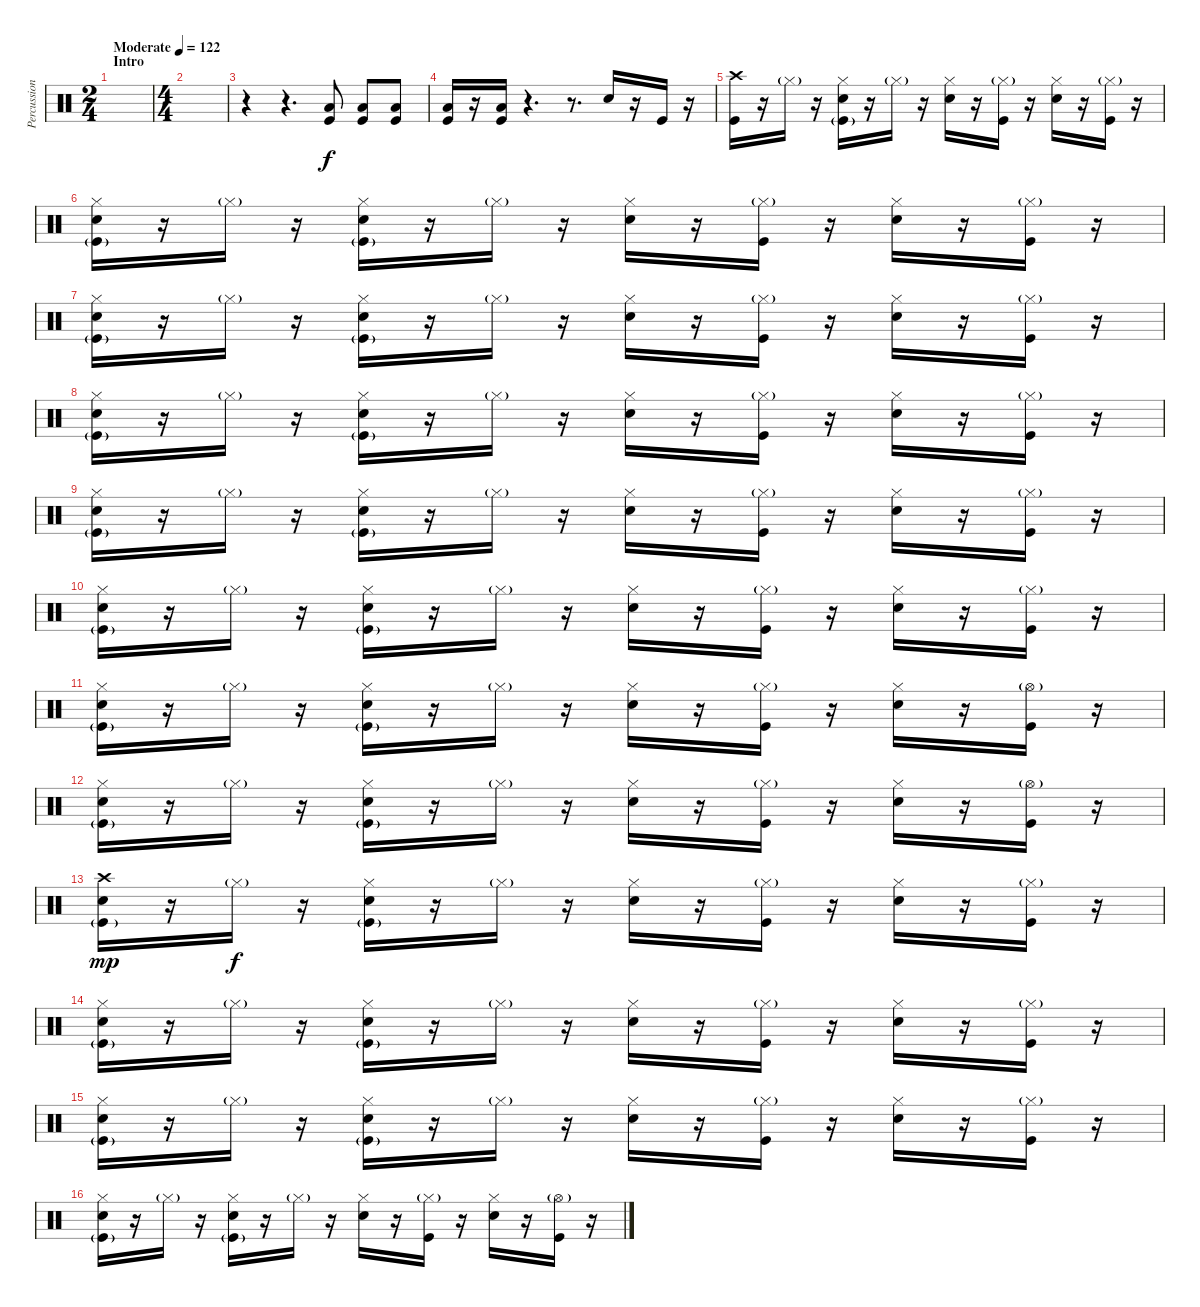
\track ("Percussion" "Percussion") {instrument percussion bank 177}
\staff {score}
\articulation defaults
\ts (2 4)
\section ("" "Intro")
\tempo (122 "Moderate")
\clef neutral
\ks c
|
\ts (4 4)
|
r.4 r.4{d} ("Low Floor Tom (hit)" "Kick (hit)").8 ("Low Floor Tom (hit)" "Kick (hit)").8 ("Low Floor Tom (hit)" "Kick (hit)").8 |
("Low Floor Tom (hit)" "Kick (hit)").16 r.16 ("Low Floor Tom (hit)" "Kick (hit)").16 r.4{d} r.8{d} "Snare (hit) 2".16 r.16 "Kick (hit)".16 r.16 |
("Crash high (hit)" "Kick (hit)").16 r.16 "Hi-Hat (closed)"{g}.16 r.16 ("Hi-Hat (closed)" "Snare (hit) 2" "Kick (hit)"{g}).16 r.16 "Hi-Hat (closed)"{g}.16 r.16 ("Hi-Hat (closed)" "Snare (hit) 2").16 r.16 ("Hi-Hat (closed)"{g} "Kick (hit)").16 r.16 ("Hi-Hat (closed)" "Snare (hit) 2").16 r.16 ("Hi-Hat (closed)"{g} "Kick (hit)").16 r.16 |
("Hi-Hat (closed)" "Snare (hit) 2" "Kick (hit)"{g}).16 r.16 "Hi-Hat (closed)"{g}.16 r.16 ("Hi-Hat (closed)" "Snare (hit) 2" "Kick (hit)"{g}).16 r.16 "Hi-Hat (closed)"{g}.16 r.16 ("Hi-Hat (closed)" "Snare (hit) 2").16 r.16 ("Hi-Hat (closed)"{g} "Kick (hit)").16 r.16 ("Hi-Hat (closed)" "Snare (hit) 2").16 r.16 ("Hi-Hat (closed)"{g} "Kick (hit)").16 r.16 |
("Hi-Hat (closed)" "Snare (hit) 2" "Kick (hit)"{g}).16 r.16 "Hi-Hat (closed)"{g}.16 r.16 ("Hi-Hat (closed)" "Snare (hit) 2" "Kick (hit)"{g}).16 r.16 "Hi-Hat (closed)"{g}.16 r.16 ("Hi-Hat (closed)" "Snare (hit) 2").16 r.16 ("Hi-Hat (closed)"{g} "Kick (hit)").16 r.16 ("Hi-Hat (closed)" "Snare (hit) 2").16 r.16 ("Hi-Hat (closed)"{g} "Kick (hit)").16 r.16 |
("Hi-Hat (closed)" "Snare (hit) 2" "Kick (hit)"{g}).16 r.16 "Hi-Hat (closed)"{g}.16 r.16 ("Hi-Hat (closed)" "Snare (hit) 2" "Kick (hit)"{g}).16 r.16 "Hi-Hat (closed)"{g}.16 r.16 ("Hi-Hat (closed)" "Snare (hit) 2").16 r.16 ("Hi-Hat (closed)"{g} "Kick (hit)").16 r.16 ("Hi-Hat (closed)" "Snare (hit) 2").16 r.16 ("Hi-Hat (closed)"{g} "Kick (hit)").16 r.16 |
("Hi-Hat (closed)" "Snare (hit) 2" "Kick (hit)"{g}).16 r.16 "Hi-Hat (closed)"{g}.16 r.16 ("Hi-Hat (closed)" "Snare (hit) 2" "Kick (hit)"{g}).16 r.16 "Hi-Hat (closed)"{g}.16 r.16 ("Hi-Hat (closed)" "Snare (hit) 2").16 r.16 ("Hi-Hat (closed)"{g} "Kick (hit)").16 r.16 ("Hi-Hat (closed)" "Snare (hit) 2").16 r.16 ("Hi-Hat (closed)"{g} "Kick (hit)").16 r.16 |
("Hi-Hat (closed)" "Snare (hit) 2" "Kick (hit)"{g}).16 r.16 "Hi-Hat (closed)"{g}.16 r.16 ("Hi-Hat (closed)" "Snare (hit) 2" "Kick (hit)"{g}).16 r.16 "Hi-Hat (closed)"{g}.16 r.16 ("Hi-Hat (closed)" "Snare (hit) 2").16 r.16 ("Hi-Hat (closed)"{g} "Kick (hit)").16 r.16 ("Hi-Hat (closed)" "Snare (hit) 2").16 r.16 ("Hi-Hat (closed)"{g} "Kick (hit)").16 r.16 |
("Hi-Hat (closed)" "Snare (hit) 2" "Kick (hit)"{g}).16 r.16 "Hi-Hat (closed)"{g}.16 r.16 ("Hi-Hat (closed)" "Snare (hit) 2" "Kick (hit)"{g}).16 r.16 "Hi-Hat (closed)"{g}.16 r.16 ("Hi-Hat (closed)" "Snare (hit) 2").16 r.16 ("Hi-Hat (closed)"{g} "Kick (hit)").16 r.16 ("Hi-Hat (closed)" "Snare (hit) 2").16 r.16 ("Hi-Hat (open)"{g} "Kick (hit)").16 r.16 |
("Hi-Hat (closed)" "Snare (hit) 2" "Kick (hit)"{g}).16 r.16 "Hi-Hat (closed)"{g}.16 r.16 ("Hi-Hat (closed)" "Snare (hit) 2" "Kick (hit)"{g}).16 r.16 "Hi-Hat (closed)"{g}.16 r.16 ("Hi-Hat (closed)" "Snare (hit) 2").16 r.16 ("Hi-Hat (closed)"{g} "Kick (hit)").16 r.16 ("Hi-Hat (closed)" "Snare (hit) 2").16 r.16 ("Hi-Hat (open)"{g} "Kick (hit)").16 r.16 |
("Crash high (hit)" "Snare (hit) 2" "Kick (hit)"{g}).16{dy mp} r.16 "Hi-Hat (closed)"{g}.16{dy f} r.16 ("Hi-Hat (closed)" "Snare (hit) 2" "Kick (hit)"{g}).16 r.16 "Hi-Hat (closed)"{g}.16 r.16 ("Hi-Hat (closed)" "Snare (hit) 2").16 r.16 ("Hi-Hat (closed)"{g} "Kick (hit)").16 r.16 ("Hi-Hat (closed)" "Snare (hit) 2").16 r.16 ("Hi-Hat (closed)"{g} "Kick (hit)").16 r.16 |
("Hi-Hat (closed)" "Snare (hit) 2" "Kick (hit)"{g}).16 r.16 "Hi-Hat (closed)"{g}.16 r.16 ("Hi-Hat (closed)" "Snare (hit) 2" "Kick (hit)"{g}).16 r.16 "Hi-Hat (closed)"{g}.16 r.16 ("Hi-Hat (closed)" "Snare (hit) 2").16 r.16 ("Hi-Hat (closed)"{g} "Kick (hit)").16 r.16 ("Hi-Hat (closed)" "Snare (hit) 2").16 r.16 ("Hi-Hat (closed)"{g} "Kick (hit)").16 r.16 |
("Hi-Hat (closed)" "Snare (hit) 2" "Kick (hit)"{g}).16 r.16 "Hi-Hat (closed)"{g}.16 r.16 ("Hi-Hat (closed)" "Snare (hit) 2" "Kick (hit)"{g}).16 r.16 "Hi-Hat (closed)"{g}.16 r.16 ("Hi-Hat (closed)" "Snare (hit) 2").16 r.16 ("Hi-Hat (closed)"{g} "Kick (hit)").16 r.16 ("Hi-Hat (closed)" "Snare (hit) 2").16 r.16 ("Hi-Hat (closed)"{g} "Kick (hit)").16 r.16 |
("Hi-Hat (closed)" "Snare (hit) 2" "Kick (hit)"{g}).16 r.16 "Hi-Hat (closed)"{g}.16 r.16 ("Hi-Hat (closed)" "Snare (hit) 2" "Kick (hit)"{g}).16 r.16 "Hi-Hat (closed)"{g}.16 r.16 ("Hi-Hat (closed)" "Snare (hit) 2").16 r.16 ("Hi-Hat (closed)"{g} "Kick (hit)").16 r.16 ("Hi-Hat (closed)" "Snare (hit) 2").16 r.16 ("Hi-Hat (open)"{g} "Kick (hit)").16 r.16
